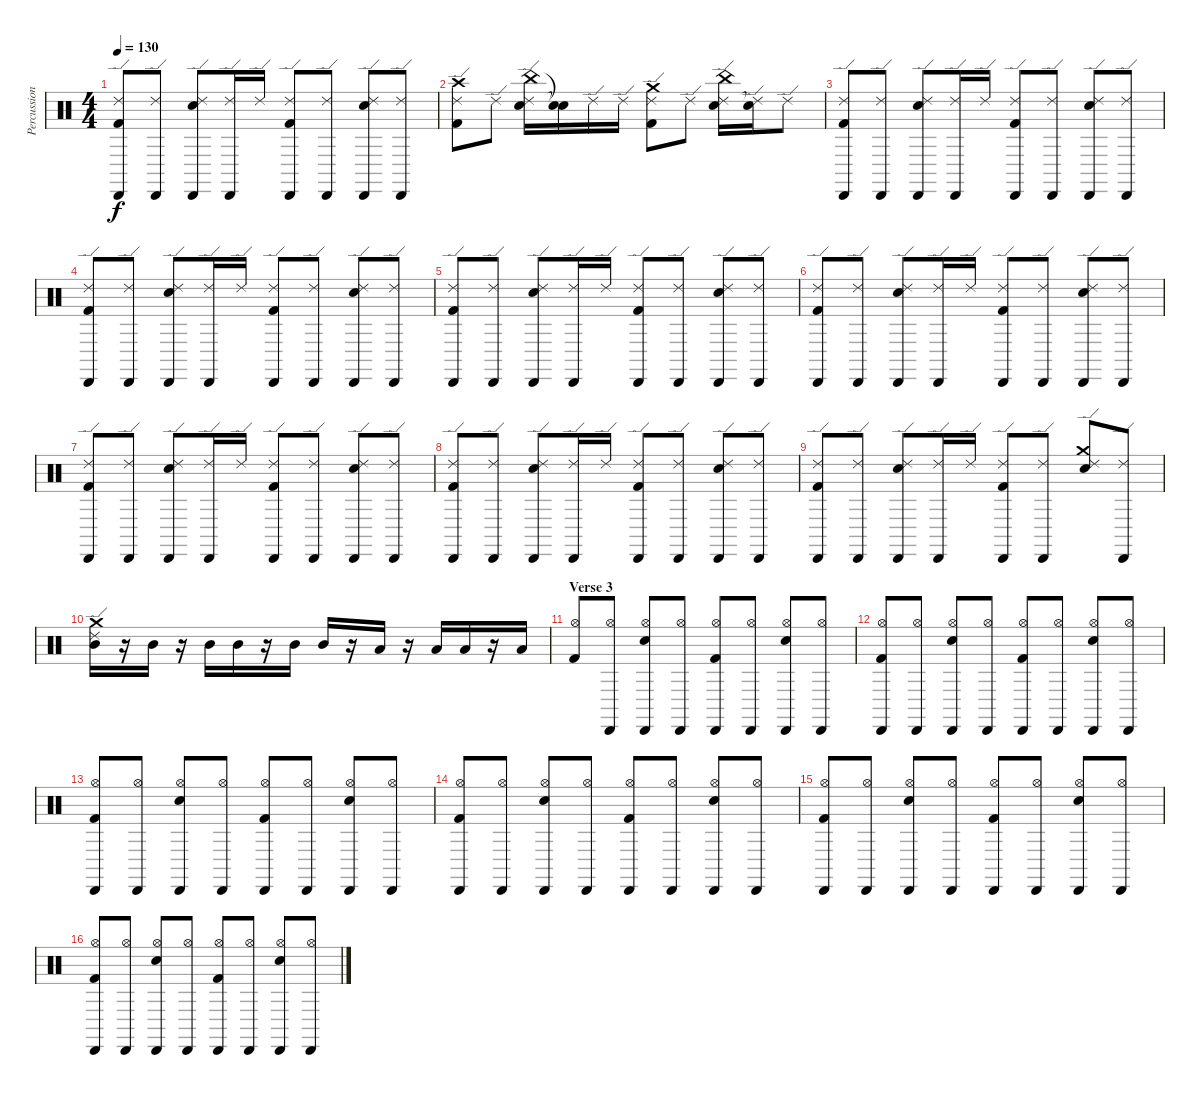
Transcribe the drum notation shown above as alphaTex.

\track ("Percussion" "Percussion") {instrument percussion}
\staff {score}
\articulation defaults
\ts (4 4)
\tempo 130
\clef neutral
\ks c
("Cabasa (hit)" "Ride (edge) 2" "Kick (hit) 2").8{dy f} ("Cabasa (hit)" "Ride (edge) 2").8 ("Cabasa (hit)" "Ride (edge) 2" "Snare (hit) 2").8 ("Cabasa (hit)" "Ride (edge) 2").16 "Ride (edge) 2".16 ("Cabasa (hit)" "Ride (edge) 2" "Kick (hit) 2").8 ("Cabasa (hit)" "Ride (edge) 2").8 ("Cabasa (hit)" "Ride (edge) 2" "Snare (hit) 2").8 ("Cabasa (hit)" "Ride (edge) 2").8 |
("Crash high (hit)" "Ride (edge) 2" "Kick (hit) 2").8 "Ride (edge) 2".8 ("China (hit)" "Ride (edge) 2" "Snare (hit) 2").16 ("Snare (hit)"{t} "Snare (hit)"{t}).16 "Ride (edge) 2".16 "Ride (edge) 2".16 ("Crash medium (hit)" "Ride (edge) 2" "Kick (hit) 2").8 "Ride (edge) 2".8 ("China (hit)" "Ride (edge) 2" "Snare (hit) 2").16 ("Ride (edge) 2" "Snare (hit)"{t}).16 "Ride (edge) 2".8 |
("Cabasa (hit)" "Ride (edge) 2" "Kick (hit) 2").8 ("Cabasa (hit)" "Ride (edge) 2").8 ("Cabasa (hit)" "Ride (edge) 2" "Snare (hit) 2").8 ("Cabasa (hit)" "Ride (edge) 2").16 "Ride (edge) 2".16 ("Cabasa (hit)" "Ride (edge) 2" "Kick (hit) 2").8 ("Cabasa (hit)" "Ride (edge) 2").8 ("Cabasa (hit)" "Ride (edge) 2" "Snare (hit) 2").8 ("Cabasa (hit)" "Ride (edge) 2").8 |
("Cabasa (hit)" "Ride (edge) 2" "Kick (hit) 2").8 ("Cabasa (hit)" "Ride (edge) 2").8 ("Cabasa (hit)" "Ride (edge) 2" "Snare (hit) 2").8 ("Cabasa (hit)" "Ride (edge) 2").16 "Ride (edge) 2".16 ("Cabasa (hit)" "Ride (edge) 2" "Kick (hit) 2").8 ("Cabasa (hit)" "Ride (edge) 2").8 ("Cabasa (hit)" "Ride (edge) 2" "Snare (hit) 2").8 ("Cabasa (hit)" "Ride (edge) 2").8 |
("Cabasa (hit)" "Ride (edge) 2" "Kick (hit) 2").8 ("Cabasa (hit)" "Ride (edge) 2").8 ("Cabasa (hit)" "Ride (edge) 2" "Snare (hit) 2").8 ("Cabasa (hit)" "Ride (edge) 2").16 "Ride (edge) 2".16 ("Cabasa (hit)" "Ride (edge) 2" "Kick (hit) 2").8 ("Cabasa (hit)" "Ride (edge) 2").8 ("Cabasa (hit)" "Ride (edge) 2" "Snare (hit) 2").8 ("Cabasa (hit)" "Ride (edge) 2").8 |
("Cabasa (hit)" "Ride (edge) 2" "Kick (hit) 2").8 ("Cabasa (hit)" "Ride (edge) 2").8 ("Cabasa (hit)" "Ride (edge) 2" "Snare (hit) 2").8 ("Cabasa (hit)" "Ride (edge) 2").16 "Ride (edge) 2".16 ("Cabasa (hit)" "Ride (edge) 2" "Kick (hit) 2").8 ("Cabasa (hit)" "Ride (edge) 2").8 ("Cabasa (hit)" "Ride (edge) 2" "Snare (hit) 2").8 ("Cabasa (hit)" "Ride (edge) 2").8 |
("Cabasa (hit)" "Ride (edge) 2" "Kick (hit) 2").8 ("Cabasa (hit)" "Ride (edge) 2").8 ("Cabasa (hit)" "Ride (edge) 2" "Snare (hit) 2").8 ("Cabasa (hit)" "Ride (edge) 2").16 "Ride (edge) 2".16 ("Cabasa (hit)" "Ride (edge) 2" "Kick (hit) 2").8 ("Cabasa (hit)" "Ride (edge) 2").8 ("Cabasa (hit)" "Ride (edge) 2" "Snare (hit) 2").8 ("Cabasa (hit)" "Ride (edge) 2").8 |
("Cabasa (hit)" "Ride (edge) 2" "Kick (hit) 2").8 ("Cabasa (hit)" "Ride (edge) 2").8 ("Cabasa (hit)" "Ride (edge) 2" "Snare (hit) 2").8 ("Cabasa (hit)" "Ride (edge) 2").16 "Ride (edge) 2".16 ("Cabasa (hit)" "Ride (edge) 2" "Kick (hit) 2").8 ("Cabasa (hit)" "Ride (edge) 2").8 ("Cabasa (hit)" "Ride (edge) 2" "Snare (hit) 2").8 ("Cabasa (hit)" "Ride (edge) 2").8 |
("Cabasa (hit)" "Ride (edge) 2" "Kick (hit) 2").8 ("Cabasa (hit)" "Ride (edge) 2").8 ("Cabasa (hit)" "Ride (edge) 2" "Snare (hit) 2").8 ("Cabasa (hit)" "Ride (edge) 2").16 "Ride (edge) 2".16 ("Cabasa (hit)" "Ride (edge) 2" "Kick (hit) 2").8 ("Cabasa (hit)" "Ride (edge) 2").8 ("Crash medium (hit)" "Ride (edge) 2" "Snare (hit) 2").8 ("Cabasa (hit)" "Ride (edge) 2").8 |
("Crash medium (hit)" "Ride (edge) 2" "Mid Tom (hit)").16 r.16 "Mid Tom (hit)".16 r.16 "Mid Tom (hit)".16 "Mid Tom (hit)".16 r.16 "Mid Tom (hit)".16 "Mid Tom (hit)".16 r.16 "Low Tom (hit)".16 r.16 "Low Tom (hit)".16 "Low Tom (hit)".16 r.16 "Low Tom (hit)".16 |
\section ("" "Verse 3")
("Hi-Hat (open)" "Kick (hit) 2").8 ("Cabasa (hit)" "Hi-Hat (open)").8 ("Cabasa (hit)" "Hi-Hat (open)" "Snare (hit) 2").8 ("Cabasa (hit)" "Hi-Hat (open)").8 ("Cabasa (hit)" "Hi-Hat (open)" "Kick (hit) 2").8 ("Cabasa (hit)" "Hi-Hat (open)").8 ("Cabasa (hit)" "Hi-Hat (open)" "Snare (hit) 2").8 ("Cabasa (hit)" "Hi-Hat (open)").8 |
("Cabasa (hit)" "Hi-Hat (open)" "Kick (hit) 2").8 ("Cabasa (hit)" "Hi-Hat (open)").8 ("Cabasa (hit)" "Hi-Hat (open)" "Snare (hit) 2").8 ("Cabasa (hit)" "Hi-Hat (open)").8 ("Cabasa (hit)" "Hi-Hat (open)" "Kick (hit) 2").8 ("Cabasa (hit)" "Hi-Hat (open)").8 ("Cabasa (hit)" "Hi-Hat (open)" "Snare (hit) 2").8 ("Cabasa (hit)" "Hi-Hat (open)").8 |
("Cabasa (hit)" "Hi-Hat (open)" "Kick (hit) 2").8 ("Cabasa (hit)" "Hi-Hat (open)").8 ("Cabasa (hit)" "Hi-Hat (open)" "Snare (hit) 2").8 ("Cabasa (hit)" "Hi-Hat (open)").8 ("Cabasa (hit)" "Hi-Hat (open)" "Kick (hit) 2").8 ("Cabasa (hit)" "Hi-Hat (open)").8 ("Cabasa (hit)" "Hi-Hat (open)" "Snare (hit) 2").8 ("Cabasa (hit)" "Hi-Hat (open)").8 |
("Cabasa (hit)" "Hi-Hat (open)" "Kick (hit) 2").8 ("Cabasa (hit)" "Hi-Hat (open)").8 ("Cabasa (hit)" "Hi-Hat (open)" "Snare (hit) 2").8 ("Cabasa (hit)" "Hi-Hat (open)").8 ("Cabasa (hit)" "Hi-Hat (open)" "Kick (hit) 2").8 ("Cabasa (hit)" "Hi-Hat (open)").8 ("Cabasa (hit)" "Hi-Hat (open)" "Snare (hit) 2").8 ("Cabasa (hit)" "Hi-Hat (open)").8 |
("Cabasa (hit)" "Hi-Hat (open)" "Kick (hit) 2").8 ("Cabasa (hit)" "Hi-Hat (open)").8 ("Cabasa (hit)" "Hi-Hat (open)" "Snare (hit) 2").8 ("Cabasa (hit)" "Hi-Hat (open)").8 ("Cabasa (hit)" "Hi-Hat (open)" "Kick (hit) 2").8 ("Cabasa (hit)" "Hi-Hat (open)").8 ("Cabasa (hit)" "Hi-Hat (open)" "Snare (hit) 2").8 ("Cabasa (hit)" "Hi-Hat (open)").8 |
("Cabasa (hit)" "Hi-Hat (open)" "Kick (hit) 2").8 ("Cabasa (hit)" "Hi-Hat (open)").8 ("Cabasa (hit)" "Hi-Hat (open)" "Snare (hit) 2").8 ("Cabasa (hit)" "Hi-Hat (open)").8 ("Cabasa (hit)" "Hi-Hat (open)" "Kick (hit) 2").8 ("Cabasa (hit)" "Hi-Hat (open)").8 ("Cabasa (hit)" "Hi-Hat (open)" "Snare (hit) 2").8 ("Cabasa (hit)" "Hi-Hat (open)").8
